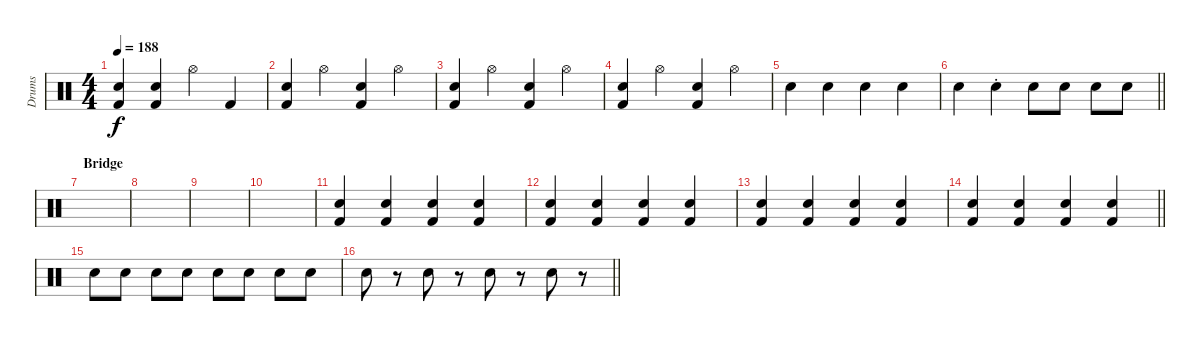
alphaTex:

\track ("Drums" "Drums") {instrument percussion}
\staff {score}
\articulation defaults
\ts (4 4)
\tempo 188
\clef neutral
\ks c
("Electric Snare (hit)" "Kick (hit) 2").4{dy f} ("Electric Snare (hit)" "Kick (hit) 2").4 "Hi-Hat (open)".4 "Kick (hit) 2".4 |
("Electric Snare (hit)" "Kick (hit) 2").4 "Hi-Hat (open)".4 ("Electric Snare (hit)" "Kick (hit) 2").4 "Hi-Hat (open)".4 |
("Electric Snare (hit)" "Kick (hit) 2").4 "Hi-Hat (open)".4 ("Electric Snare (hit)" "Kick (hit) 2").4 "Hi-Hat (open)".4 |
("Electric Snare (hit)" "Kick (hit) 2").4 "Hi-Hat (open)".4 ("Electric Snare (hit)" "Kick (hit) 2").4 "Hi-Hat (open)".4 |
"Electric Snare (hit)".4 "Electric Snare (hit)".4 "Electric Snare (hit)".4 "Electric Snare (hit)".4 |
\barLineRight lightlight "Electric Snare (hit)".4 "Electric Snare (hit)"{st}.4 "Electric Snare (hit)".8 "Electric Snare (hit)".8 "Electric Snare (hit)".8 "Electric Snare (hit)".8
|
\section ("" "Bridge")
|
|
|
|
("Electric Snare (hit)" "Kick (hit) 2").4{volume 16} ("Electric Snare (hit)" "Kick (hit) 2").4 ("Electric Snare (hit)" "Kick (hit) 2").4 ("Electric Snare (hit)" "Kick (hit) 2").4 |
("Electric Snare (hit)" "Kick (hit) 2").4 ("Electric Snare (hit)" "Kick (hit) 2").4 ("Electric Snare (hit)" "Kick (hit) 2").4 ("Electric Snare (hit)" "Kick (hit) 2").4 |
("Electric Snare (hit)" "Kick (hit) 2").4 ("Electric Snare (hit)" "Kick (hit) 2").4 ("Electric Snare (hit)" "Kick (hit) 2").4 ("Electric Snare (hit)" "Kick (hit) 2").4 |
\barLineRight lightlight
("Electric Snare (hit)" "Kick (hit) 2").4 ("Electric Snare (hit)" "Kick (hit) 2").4 ("Electric Snare (hit)" "Kick (hit) 2").4 ("Electric Snare (hit)" "Kick (hit) 2").4 |
"Electric Snare (hit)".8 "Electric Snare (hit)".8 "Electric Snare (hit)".8 "Electric Snare (hit)".8 "Electric Snare (hit)".8 "Electric Snare (hit)".8 "Electric Snare (hit)".8 "Electric Snare (hit)".8 |
\barLineRight lightlight "Electric Snare (hit)".8
r.8 "Electric Snare (hit)".8 r.8 "Electric Snare (hit)".8 r.8 "Electric Snare (hit)".8 r.8
